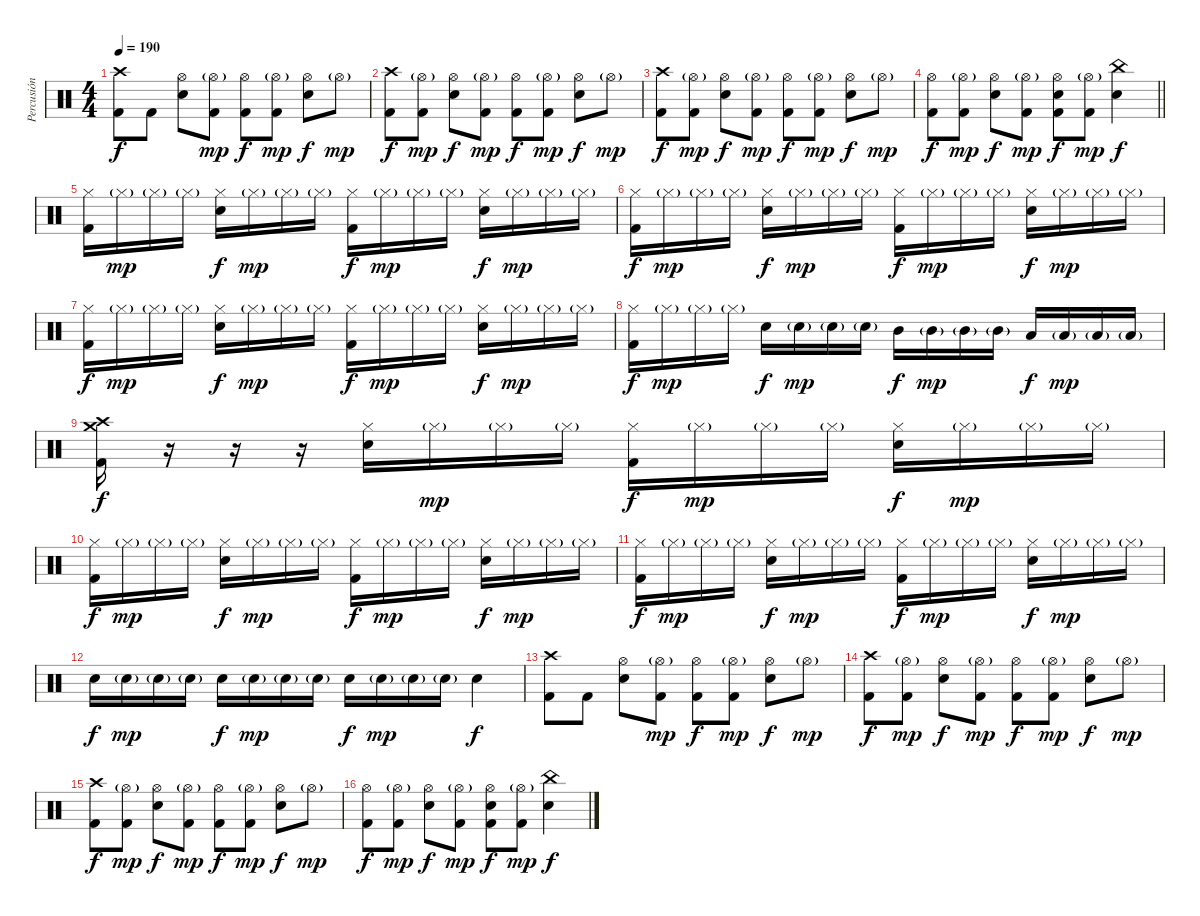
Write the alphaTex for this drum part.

\track ("Percusión" "Percusión") {instrument percussion}
\staff {score}
\articulation defaults
\ts (4 4)
\tempo 190
\clef neutral
\ks c
("Crash high (hit)" "Kick (hit) 2").8{dy f} "Kick (hit) 2".8 ("Hi-Hat (open)" "Electric Snare (hit)").8 ("Hi-Hat (open)"{g} "Kick (hit) 2").8{dy mp} ("Hi-Hat (open)" "Kick (hit) 2").8{dy f} ("Hi-Hat (open)"{g} "Kick (hit) 2").8{dy mp} ("Hi-Hat (open)" "Electric Snare (hit)").8{dy f} "Hi-Hat (open)"{g}.8{dy mp} |
("Crash high (hit)" "Kick (hit) 2").8{dy f} ("Hi-Hat (open)"{g} "Kick (hit) 2").8{dy mp} ("Hi-Hat (open)" "Electric Snare (hit)").8{dy f} ("Hi-Hat (open)"{g} "Kick (hit) 2").8{dy mp} ("Hi-Hat (open)" "Kick (hit) 2").8{dy f} ("Hi-Hat (open)"{g} "Kick (hit) 2").8{dy mp} ("Hi-Hat (open)" "Electric Snare (hit)").8{dy f} "Hi-Hat (open)"{g}.8{dy mp} |
("Crash high (hit)" "Kick (hit) 2").8{dy f} ("Hi-Hat (open)"{g} "Kick (hit) 2").8{dy mp} ("Hi-Hat (open)" "Electric Snare (hit)").8{dy f} ("Hi-Hat (open)"{g} "Kick (hit) 2").8{dy mp} ("Hi-Hat (open)" "Kick (hit) 2").8{dy f} ("Hi-Hat (open)"{g} "Kick (hit) 2").8{dy mp} ("Hi-Hat (open)" "Electric Snare (hit)").8{dy f} "Hi-Hat (open)"{g}.8{dy mp} |
\barLineRight lightlight
("Hi-Hat (open)" "Kick (hit) 2").8{dy f} ("Hi-Hat (open)"{g} "Kick (hit) 2").8{dy mp} ("Hi-Hat (open)" "Electric Snare (hit)").8{dy f} ("Hi-Hat (open)"{g} "Kick (hit) 2").8{dy mp} ("Hi-Hat (open)" "Electric Snare (hit)" "Kick (hit) 2").8{dy f} ("Hi-Hat (open)"{g} "Kick (hit) 2").8{dy mp} ("China (hit)" "Electric Snare (hit)").4{dy f} |
("Hi-Hat (closed)" "Kick (hit) 2").16 "Hi-Hat (closed)"{g}.16{dy mp} "Hi-Hat (closed)"{g}.16 "Hi-Hat (closed)"{g}.16 ("Hi-Hat (closed)" "Electric Snare (hit)").16{dy f} "Hi-Hat (closed)"{g}.16{dy mp} "Hi-Hat (closed)"{g}.16 "Hi-Hat (closed)"{g}.16 ("Hi-Hat (closed)" "Kick (hit) 2").16{dy f} "Hi-Hat (closed)"{g}.16{dy mp} "Hi-Hat (closed)"{g}.16 "Hi-Hat (closed)"{g}.16 ("Hi-Hat (closed)" "Electric Snare (hit)").16{dy f} "Hi-Hat (closed)"{g}.16{dy mp} "Hi-Hat (closed)"{g}.16 "Hi-Hat (closed)"{g}.16 |
("Hi-Hat (closed)" "Kick (hit) 2").16{dy f} "Hi-Hat (closed)"{g}.16{dy mp} "Hi-Hat (closed)"{g}.16 "Hi-Hat (closed)"{g}.16 ("Hi-Hat (closed)" "Electric Snare (hit)").16{dy f} "Hi-Hat (closed)"{g}.16{dy mp} "Hi-Hat (closed)"{g}.16 "Hi-Hat (closed)"{g}.16 ("Hi-Hat (closed)" "Kick (hit) 2").16{dy f} "Hi-Hat (closed)"{g}.16{dy mp} "Hi-Hat (closed)"{g}.16 "Hi-Hat (closed)"{g}.16 ("Hi-Hat (closed)" "Electric Snare (hit)").16{dy f} "Hi-Hat (closed)"{g}.16{dy mp} "Hi-Hat (closed)"{g}.16 "Hi-Hat (closed)"{g}.16 |
("Hi-Hat (closed)" "Kick (hit) 2").16{dy f} "Hi-Hat (closed)"{g}.16{dy mp} "Hi-Hat (closed)"{g}.16 "Hi-Hat (closed)"{g}.16 ("Hi-Hat (closed)" "Electric Snare (hit)").16{dy f} "Hi-Hat (closed)"{g}.16{dy mp} "Hi-Hat (closed)"{g}.16 "Hi-Hat (closed)"{g}.16 ("Hi-Hat (closed)" "Kick (hit) 2").16{dy f} "Hi-Hat (closed)"{g}.16{dy mp} "Hi-Hat (closed)"{g}.16 "Hi-Hat (closed)"{g}.16 ("Hi-Hat (closed)" "Electric Snare (hit)").16{dy f} "Hi-Hat (closed)"{g}.16{dy mp} "Hi-Hat (closed)"{g}.16 "Hi-Hat (closed)"{g}.16 |
("Hi-Hat (closed)" "Kick (hit) 2").16{dy f} "Hi-Hat (closed)"{g}.16{dy mp} "Hi-Hat (closed)"{g}.16 "Hi-Hat (closed)"{g}.16 "Electric Snare (hit)".16{dy f} "Electric Snare (hit)"{g}.16{dy mp} "Electric Snare (hit)"{g}.16 "Electric Snare (hit)"{g}.16 "Mid Tom (hit)".16{dy f} "Mid Tom (hit)"{g}.16{dy mp} "Mid Tom (hit)"{g}.16 "Mid Tom (hit)"{g}.16 "Low Tom (hit)".16{dy f} "Low Tom (hit)"{g}.16{dy mp} "Low Tom (hit)"{g}.16 "Low Tom (hit)"{g}.16 |
("Crash high (hit)" "Crash medium (hit)" "Kick (hit) 2").16{dy f} r.16 r.16 r.16 ("Hi-Hat (closed)" "Electric Snare (hit)").16 "Hi-Hat (closed)"{g}.16{dy mp} "Hi-Hat (closed)"{g}.16 "Hi-Hat (closed)"{g}.16 ("Hi-Hat (closed)" "Kick (hit) 2").16{dy f} "Hi-Hat (closed)"{g}.16{dy mp} "Hi-Hat (closed)"{g}.16 "Hi-Hat (closed)"{g}.16 ("Hi-Hat (closed)" "Electric Snare (hit)").16{dy f} "Hi-Hat (closed)"{g}.16{dy mp} "Hi-Hat (closed)"{g}.16 "Hi-Hat (closed)"{g}.16 |
("Hi-Hat (closed)" "Kick (hit) 2").16{dy f} "Hi-Hat (closed)"{g}.16{dy mp} "Hi-Hat (closed)"{g}.16 "Hi-Hat (closed)"{g}.16 ("Hi-Hat (closed)" "Electric Snare (hit)").16{dy f} "Hi-Hat (closed)"{g}.16{dy mp} "Hi-Hat (closed)"{g}.16 "Hi-Hat (closed)"{g}.16 ("Hi-Hat (closed)" "Kick (hit) 2").16{dy f} "Hi-Hat (closed)"{g}.16{dy mp} "Hi-Hat (closed)"{g}.16 "Hi-Hat (closed)"{g}.16 ("Hi-Hat (closed)" "Electric Snare (hit)").16{dy f} "Hi-Hat (closed)"{g}.16{dy mp} "Hi-Hat (closed)"{g}.16 "Hi-Hat (closed)"{g}.16 |
("Hi-Hat (closed)" "Kick (hit) 2").16{dy f} "Hi-Hat (closed)"{g}.16{dy mp} "Hi-Hat (closed)"{g}.16 "Hi-Hat (closed)"{g}.16 ("Hi-Hat (closed)" "Electric Snare (hit)").16{dy f} "Hi-Hat (closed)"{g}.16{dy mp} "Hi-Hat (closed)"{g}.16 "Hi-Hat (closed)"{g}.16 ("Hi-Hat (closed)" "Kick (hit) 2").16{dy f} "Hi-Hat (closed)"{g}.16{dy mp} "Hi-Hat (closed)"{g}.16 "Hi-Hat (closed)"{g}.16 ("Hi-Hat (closed)" "Electric Snare (hit)").16{dy f} "Hi-Hat (closed)"{g}.16{dy mp} "Hi-Hat (closed)"{g}.16 "Hi-Hat (closed)"{g}.16 |
"Electric Snare (hit)".16{dy f} "Electric Snare (hit)"{g}.16{dy mp} "Electric Snare (hit)"{g}.16 "Electric Snare (hit)"{g}.16 "Electric Snare (hit)".16{dy f} "Electric Snare (hit)"{g}.16{dy mp} "Electric Snare (hit)"{g}.16 "Electric Snare (hit)"{g}.16 "Electric Snare (hit)".16{dy f} "Electric Snare (hit)"{g}.16{dy mp} "Electric Snare (hit)"{g}.16 "Electric Snare (hit)"{g}.16 "Electric Snare (hit)".4{dy f} |
("Crash high (hit)" "Kick (hit) 2").8 "Kick (hit) 2".8 ("Hi-Hat (open)" "Electric Snare (hit)").8 ("Hi-Hat (open)"{g} "Kick (hit) 2").8{dy mp} ("Hi-Hat (open)" "Kick (hit) 2").8{dy f} ("Hi-Hat (open)"{g} "Kick (hit) 2").8{dy mp} ("Hi-Hat (open)" "Electric Snare (hit)").8{dy f} "Hi-Hat (open)"{g}.8{dy mp} |
("Crash high (hit)" "Kick (hit) 2").8{dy f} ("Hi-Hat (open)"{g} "Kick (hit) 2").8{dy mp} ("Hi-Hat (open)" "Electric Snare (hit)").8{dy f} ("Hi-Hat (open)"{g} "Kick (hit) 2").8{dy mp} ("Hi-Hat (open)" "Kick (hit) 2").8{dy f} ("Hi-Hat (open)"{g} "Kick (hit) 2").8{dy mp} ("Hi-Hat (open)" "Electric Snare (hit)").8{dy f} "Hi-Hat (open)"{g}.8{dy mp} |
("Crash high (hit)" "Kick (hit) 2").8{dy f} ("Hi-Hat (open)"{g} "Kick (hit) 2").8{dy mp} ("Hi-Hat (open)" "Electric Snare (hit)").8{dy f} ("Hi-Hat (open)"{g} "Kick (hit) 2").8{dy mp} ("Hi-Hat (open)" "Kick (hit) 2").8{dy f} ("Hi-Hat (open)"{g} "Kick (hit) 2").8{dy mp} ("Hi-Hat (open)" "Electric Snare (hit)").8{dy f} "Hi-Hat (open)"{g}.8{dy mp} |
("Hi-Hat (open)" "Kick (hit) 2").8{dy f} ("Hi-Hat (open)"{g} "Kick (hit) 2").8{dy mp} ("Hi-Hat (open)" "Electric Snare (hit)").8{dy f} ("Hi-Hat (open)"{g} "Kick (hit) 2").8{dy mp} ("Hi-Hat (open)" "Electric Snare (hit)" "Kick (hit) 2").8{dy f} ("Hi-Hat (open)"{g} "Kick (hit) 2").8{dy mp} ("China (hit)" "Electric Snare (hit)").4{dy f}
